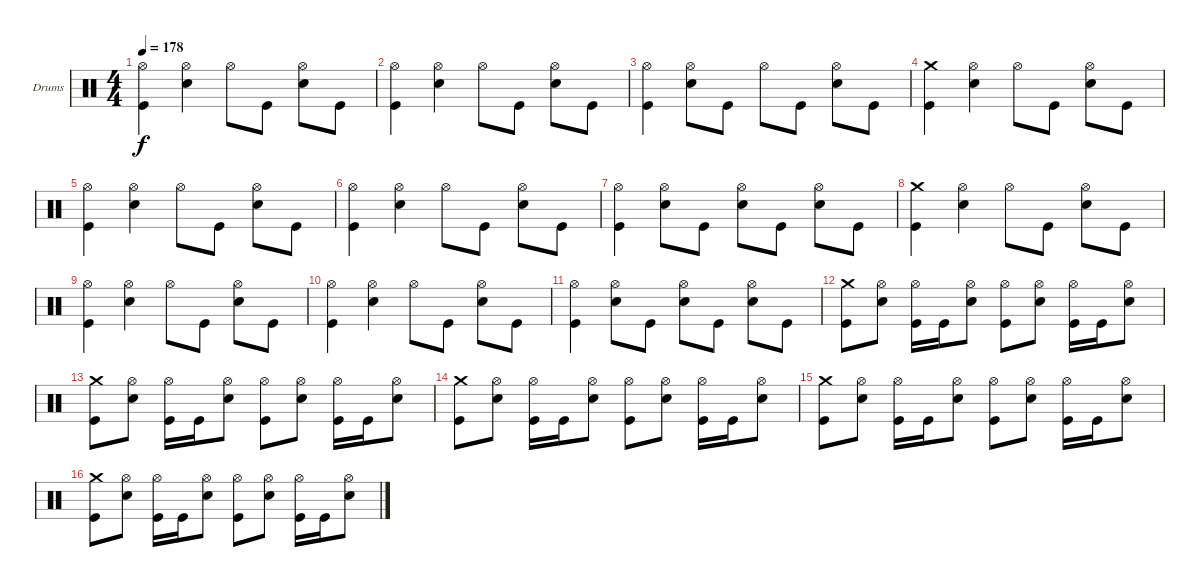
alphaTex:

\bracketExtendMode groupsimilarinstruments
\firstSystemTrackNameOrientation horizontal
\otherSystemsTrackNameOrientation horizontal
\track ("Drumkit" "Drums") {instrument percussion}
\staff {score}
\articulation defaults
\ts (4 4)
\tempo 178
\clef neutral
\ks c
("Hi-Hat (open)" "Kick (hit)").4{dy f} ("Hi-Hat (open)" "Snare (hit) 2").4 "Hi-Hat (open)".8 "Kick (hit)".8 ("Hi-Hat (open)" "Snare (hit) 2").8 "Kick (hit)".8 |
("Hi-Hat (open)" "Kick (hit)").4 ("Hi-Hat (open)" "Snare (hit) 2").4 "Hi-Hat (open)".8 "Kick (hit)".8 ("Hi-Hat (open)" "Snare (hit) 2").8 "Kick (hit)".8 |
("Hi-Hat (open)" "Kick (hit)").4 ("Hi-Hat (open)" "Snare (hit) 2").8 "Kick (hit)".8 "Hi-Hat (open)".8 "Kick (hit)".8 ("Hi-Hat (open)" "Snare (hit) 2").8 "Kick (hit)".8 |
("Crash medium (hit)" "Kick (hit)").4 ("Hi-Hat (open)" "Snare (hit) 2").4 "Hi-Hat (open)".8 "Kick (hit)".8 ("Hi-Hat (open)" "Snare (hit) 2").8 "Kick (hit)".8 |
("Hi-Hat (open)" "Kick (hit)").4 ("Hi-Hat (open)" "Snare (hit) 2").4 "Hi-Hat (open)".8 "Kick (hit)".8 ("Hi-Hat (open)" "Snare (hit) 2").8 "Kick (hit)".8 |
("Hi-Hat (open)" "Kick (hit)").4 ("Hi-Hat (open)" "Snare (hit) 2").4 "Hi-Hat (open)".8 "Kick (hit)".8 ("Hi-Hat (open)" "Snare (hit) 2").8 "Kick (hit)".8 |
("Hi-Hat (open)" "Kick (hit)").4 ("Hi-Hat (open)" "Snare (hit) 2").8 "Kick (hit)".8 ("Hi-Hat (open)" "Snare (hit) 2").8 "Kick (hit)".8 ("Hi-Hat (open)" "Snare (hit) 2").8 "Kick (hit)".8 |
("Crash medium (hit)" "Kick (hit)").4 ("Hi-Hat (open)" "Snare (hit) 2").4 "Hi-Hat (open)".8 "Kick (hit)".8 ("Hi-Hat (open)" "Snare (hit) 2").8 "Kick (hit)".8 |
("Hi-Hat (open)" "Kick (hit)").4 ("Hi-Hat (open)" "Snare (hit) 2").4 "Hi-Hat (open)".8 "Kick (hit)".8 ("Hi-Hat (open)" "Snare (hit) 2").8 "Kick (hit)".8 |
("Hi-Hat (open)" "Kick (hit)").4 ("Hi-Hat (open)" "Snare (hit) 2").4 "Hi-Hat (open)".8 "Kick (hit)".8 ("Hi-Hat (open)" "Snare (hit) 2").8 "Kick (hit)".8 |
("Hi-Hat (open)" "Kick (hit)").4 ("Hi-Hat (open)" "Snare (hit) 2").8 "Kick (hit)".8 ("Hi-Hat (open)" "Snare (hit) 2").8 "Kick (hit)".8 ("Hi-Hat (open)" "Snare (hit) 2").8 "Kick (hit)".8 |
("Crash medium (hit)" "Kick (hit)").8 ("Hi-Hat (open)" "Snare (hit) 2").8 ("Hi-Hat (open)" "Kick (hit)").16 "Kick (hit)".16 ("Hi-Hat (open)" "Snare (hit) 2").8 ("Hi-Hat (open)" "Kick (hit)").8 ("Hi-Hat (open)" "Snare (hit) 2").8 ("Hi-Hat (open)" "Kick (hit)").16 "Kick (hit)".16 ("Hi-Hat (open)" "Snare (hit) 2").8 |
("Crash medium (hit)" "Kick (hit)").8 ("Hi-Hat (open)" "Snare (hit) 2").8 ("Hi-Hat (open)" "Kick (hit)").16 "Kick (hit)".16 ("Hi-Hat (open)" "Snare (hit) 2").8 ("Hi-Hat (open)" "Kick (hit)").8 ("Hi-Hat (open)" "Snare (hit) 2").8 ("Hi-Hat (open)" "Kick (hit)").16 "Kick (hit)".16 ("Hi-Hat (open)" "Snare (hit) 2").8 |
("Crash medium (hit)" "Kick (hit)").8 ("Hi-Hat (open)" "Snare (hit) 2").8 ("Hi-Hat (open)" "Kick (hit)").16 "Kick (hit)".16 ("Hi-Hat (open)" "Snare (hit) 2").8 ("Hi-Hat (open)" "Kick (hit)").8 ("Hi-Hat (open)" "Snare (hit) 2").8 ("Hi-Hat (open)" "Kick (hit)").16 "Kick (hit)".16 ("Hi-Hat (open)" "Snare (hit) 2").8 |
("Crash medium (hit)" "Kick (hit)").8 ("Hi-Hat (open)" "Snare (hit) 2").8 ("Hi-Hat (open)" "Kick (hit)").16 "Kick (hit)".16 ("Hi-Hat (open)" "Snare (hit) 2").8 ("Hi-Hat (open)" "Kick (hit)").8 ("Hi-Hat (open)" "Snare (hit) 2").8 ("Hi-Hat (open)" "Kick (hit)").16 "Kick (hit)".16 ("Hi-Hat (open)" "Snare (hit) 2").8 |
("Crash medium (hit)" "Kick (hit)").8 ("Hi-Hat (open)" "Snare (hit) 2").8 ("Hi-Hat (open)" "Kick (hit)").16 "Kick (hit)".16 ("Hi-Hat (open)" "Snare (hit) 2").8 ("Hi-Hat (open)" "Kick (hit)").8 ("Hi-Hat (open)" "Snare (hit) 2").8 ("Hi-Hat (open)" "Kick (hit)").16 "Kick (hit)".16 ("Hi-Hat (open)" "Snare (hit) 2").8
